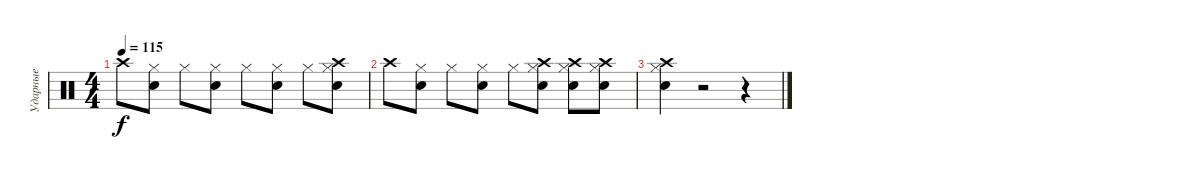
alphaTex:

\track ("Ударные" "Ударные") {instrument percussion}
\staff {score}
\articulation defaults
\ts (4 4)
\tempo 115
\clef neutral
\ks c "Crash high (hit)".8{dy f}
("Hi-Hat (closed)" "Snare (hit) 2").8 "Hi-Hat (closed)".8 ("Hi-Hat (closed)" "Snare (hit) 2").8 "Hi-Hat (closed)".8 ("Hi-Hat (closed)" "Snare (hit) 2").8 "Hi-Hat (closed)".8 ("Hi-Hat (closed)" "Snare (hit) 2" "Crash high (hit)").8 |
"Crash high (hit)".8 ("Hi-Hat (closed)" "Snare (hit) 2").8 "Hi-Hat (closed)".8 ("Hi-Hat (closed)" "Snare (hit) 2").8 "Hi-Hat (closed)".8 ("Hi-Hat (closed)" "Snare (hit) 2" "Crash high (hit)").8 ("Hi-Hat (closed)" "Snare (hit) 2" "Crash high (hit)").8 ("Hi-Hat (closed)" "Snare (hit) 2" "Crash high (hit)").8 |
("Hi-Hat (closed)" "Snare (hit) 2" "Crash high (hit)").4 r.2 r.4
